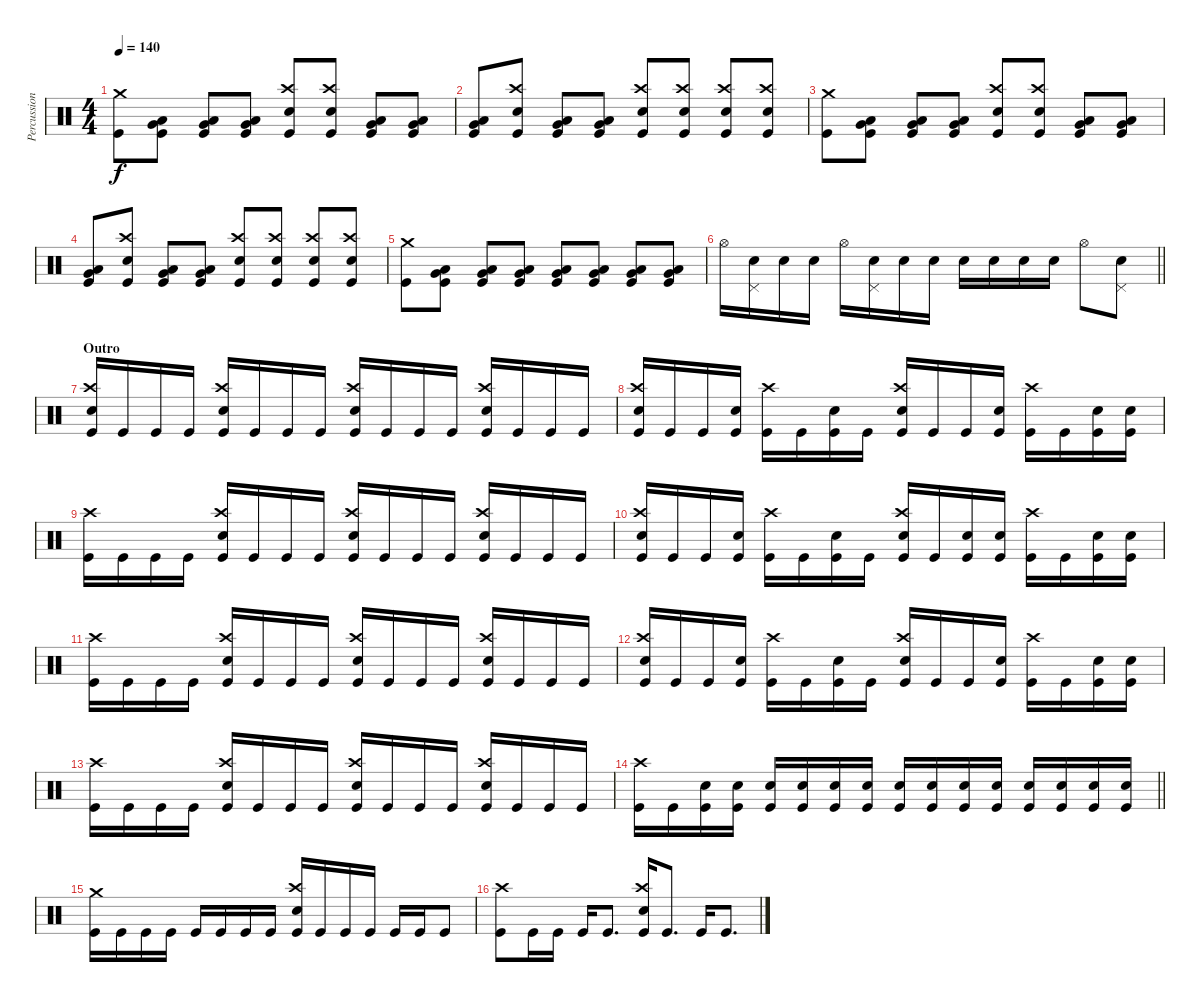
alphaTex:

\track ("Percussion" "Percussion") {instrument percussion}
\staff {score}
\articulation defaults
\ts (4 4)
\tempo 140
\clef neutral
\ks c
("Crash medium (hit)" "Kick (hit)").8{dy f} ("Very Low Tom (hit)" "Low Floor Tom (hit)" "Kick (hit)").8 ("Very Low Tom (hit)" "Low Floor Tom (hit)" "Kick (hit)").8 ("Very Low Tom (hit)" "Low Floor Tom (hit)" "Kick (hit)").8 ("Crash high (hit)" "Electric Snare (hit)" "Kick (hit)").8 ("Crash high (hit)" "Electric Snare (hit)" "Kick (hit)").8 ("Very Low Tom (hit)" "Low Floor Tom (hit)" "Kick (hit)").8 ("Very Low Tom (hit)" "Low Floor Tom (hit)" "Kick (hit)").8 |
("Very Low Tom (hit)" "Low Floor Tom (hit)" "Kick (hit)").8 ("Crash high (hit)" "Electric Snare (hit)" "Kick (hit)").8 ("Very Low Tom (hit)" "Low Floor Tom (hit)" "Kick (hit)").8 ("Very Low Tom (hit)" "Low Floor Tom (hit)" "Kick (hit)").8 ("Crash high (hit)" "Electric Snare (hit)" "Kick (hit)").8 ("Crash high (hit)" "Electric Snare (hit)" "Kick (hit)").8 ("Crash high (hit)" "Electric Snare (hit)" "Kick (hit)").8 ("Crash high (hit)" "Electric Snare (hit)" "Kick (hit)").8 |
("Crash medium (hit)" "Kick (hit)").8 ("Very Low Tom (hit)" "Low Floor Tom (hit)" "Kick (hit)").8 ("Very Low Tom (hit)" "Low Floor Tom (hit)" "Kick (hit)").8 ("Very Low Tom (hit)" "Low Floor Tom (hit)" "Kick (hit)").8 ("Crash high (hit)" "Electric Snare (hit)" "Kick (hit)").8 ("Crash high (hit)" "Electric Snare (hit)" "Kick (hit)").8 ("Very Low Tom (hit)" "Low Floor Tom (hit)" "Kick (hit)").8 ("Very Low Tom (hit)" "Low Floor Tom (hit)" "Kick (hit)").8 |
("Very Low Tom (hit)" "Low Floor Tom (hit)" "Kick (hit)").8 ("Crash high (hit)" "Electric Snare (hit)" "Kick (hit)").8 ("Very Low Tom (hit)" "Low Floor Tom (hit)" "Kick (hit)").8 ("Very Low Tom (hit)" "Low Floor Tom (hit)" "Kick (hit)").8 ("Crash high (hit)" "Electric Snare (hit)" "Kick (hit)").8 ("Crash high (hit)" "Electric Snare (hit)" "Kick (hit)").8 ("Crash high (hit)" "Electric Snare (hit)" "Kick (hit)").8 ("Crash high (hit)" "Electric Snare (hit)" "Kick (hit)").8 |
("Crash medium (hit)" "Kick (hit)").8 ("Very Low Tom (hit)" "Low Floor Tom (hit)" "Kick (hit)").8 ("Very Low Tom (hit)" "Low Floor Tom (hit)" "Kick (hit)").8 ("Very Low Tom (hit)" "Low Floor Tom (hit)" "Kick (hit)").8 ("Very Low Tom (hit)" "Low Floor Tom (hit)" "Kick (hit)").8 ("Very Low Tom (hit)" "Low Floor Tom (hit)" "Kick (hit)").8 ("Very Low Tom (hit)" "Low Floor Tom (hit)" "Kick (hit)").8 ("Very Low Tom (hit)" "Low Floor Tom (hit)" "Kick (hit)").8 |
\barLineRight lightlight "Hi-Hat (open)".16
("Pedal Hi-Hat (hit)" "Electric Snare (hit)").16 "Electric Snare (hit)".16 "Electric Snare (hit)".16 "Hi-Hat (open)".16 ("Pedal Hi-Hat (hit)" "Electric Snare (hit)").16 "Electric Snare (hit)".16 "Electric Snare (hit)".16 "Electric Snare (hit)".16 "Electric Snare (hit)".16 "Electric Snare (hit)".16 "Electric Snare (hit)".16 "Hi-Hat (open)".8 ("Pedal Hi-Hat (hit)" "Electric Snare (hit)").8 |
\section ("" "Outro")
("Crash high (hit)" "Electric Snare (hit)" "Kick (hit)").16 "Kick (hit)".16 "Kick (hit)".16 "Kick (hit)".16 ("Crash high (hit)" "Electric Snare (hit)" "Kick (hit)").16 "Kick (hit)".16 "Kick (hit)".16 "Kick (hit)".16 ("Crash high (hit)" "Electric Snare (hit)" "Kick (hit)").16 "Kick (hit)".16 "Kick (hit)".16 "Kick (hit)".16 ("Crash high (hit)" "Electric Snare (hit)" "Kick (hit)").16 "Kick (hit)".16 "Kick (hit)".16 "Kick (hit)".16 |
("Crash high (hit)" "Electric Snare (hit)" "Kick (hit)").16 "Kick (hit)".16 "Kick (hit)".16 ("Electric Snare (hit)" "Kick (hit)").16 ("Crash high (hit)" "Kick (hit)").16 "Kick (hit)".16 ("Electric Snare (hit)" "Kick (hit)").16 "Kick (hit)".16 ("Crash high (hit)" "Electric Snare (hit)" "Kick (hit)").16 "Kick (hit)".16 "Kick (hit)".16 ("Electric Snare (hit)" "Kick (hit)").16 ("Crash high (hit)" "Kick (hit)").16 "Kick (hit)".16 ("Electric Snare (hit)" "Kick (hit)").16 ("Electric Snare (hit)" "Kick (hit)").16 |
("Crash high (hit)" "Kick (hit)").16 "Kick (hit)".16 "Kick (hit)".16 "Kick (hit)".16 ("Crash high (hit)" "Electric Snare (hit)" "Kick (hit)").16 "Kick (hit)".16 "Kick (hit)".16 "Kick (hit)".16 ("Crash high (hit)" "Electric Snare (hit)" "Kick (hit)").16 "Kick (hit)".16 "Kick (hit)".16 "Kick (hit)".16 ("Crash high (hit)" "Electric Snare (hit)" "Kick (hit)").16 "Kick (hit)".16 "Kick (hit)".16 "Kick (hit)".16 |
("Crash high (hit)" "Electric Snare (hit)" "Kick (hit)").16 "Kick (hit)".16 "Kick (hit)".16 ("Electric Snare (hit)" "Kick (hit)").16 ("Crash high (hit)" "Kick (hit)").16 "Kick (hit)".16 ("Electric Snare (hit)" "Kick (hit)").16 "Kick (hit)".16 ("Crash high (hit)" "Electric Snare (hit)" "Kick (hit)").16 "Kick (hit)".16 ("Electric Snare (hit)" "Kick (hit)").16 ("Electric Snare (hit)" "Kick (hit)").16 ("Crash high (hit)" "Kick (hit)").16 "Kick (hit)".16 ("Electric Snare (hit)" "Kick (hit)").16 ("Electric Snare (hit)" "Kick (hit)").16 |
("Crash high (hit)" "Kick (hit)").16 "Kick (hit)".16 "Kick (hit)".16 "Kick (hit)".16 ("Crash high (hit)" "Electric Snare (hit)" "Kick (hit)").16 "Kick (hit)".16 "Kick (hit)".16 "Kick (hit)".16 ("Crash high (hit)" "Electric Snare (hit)" "Kick (hit)").16 "Kick (hit)".16 "Kick (hit)".16 "Kick (hit)".16 ("Crash high (hit)" "Electric Snare (hit)" "Kick (hit)").16 "Kick (hit)".16 "Kick (hit)".16 "Kick (hit)".16 |
("Crash high (hit)" "Electric Snare (hit)" "Kick (hit)").16 "Kick (hit)".16 "Kick (hit)".16 ("Electric Snare (hit)" "Kick (hit)").16 ("Crash high (hit)" "Kick (hit)").16 "Kick (hit)".16 ("Electric Snare (hit)" "Kick (hit)").16 "Kick (hit)".16 ("Crash high (hit)" "Electric Snare (hit)" "Kick (hit)").16 "Kick (hit)".16 "Kick (hit)".16 ("Electric Snare (hit)" "Kick (hit)").16 ("Crash high (hit)" "Kick (hit)").16 "Kick (hit)".16 ("Electric Snare (hit)" "Kick (hit)").16 ("Electric Snare (hit)" "Kick (hit)").16 |
("Crash high (hit)" "Kick (hit)").16 "Kick (hit)".16 "Kick (hit)".16 "Kick (hit)".16 ("Crash high (hit)" "Electric Snare (hit)" "Kick (hit)").16 "Kick (hit)".16 "Kick (hit)".16 "Kick (hit)".16 ("Crash high (hit)" "Electric Snare (hit)" "Kick (hit)").16 "Kick (hit)".16 "Kick (hit)".16 "Kick (hit)".16 ("Crash high (hit)" "Electric Snare (hit)" "Kick (hit)").16 "Kick (hit)".16 "Kick (hit)".16 "Kick (hit)".16 |
\barLineRight lightlight
("Crash high (hit)" "Kick (hit)").16 "Kick (hit)".16 ("Electric Snare (hit)" "Kick (hit)").16 ("Electric Snare (hit)" "Kick (hit)").16 ("Electric Snare (hit)" "Kick (hit)").16 ("Electric Snare (hit)" "Kick (hit)").16 ("Electric Snare (hit)" "Kick (hit)").16 ("Electric Snare (hit)" "Kick (hit)").16 ("Electric Snare (hit)" "Kick (hit)").16 ("Electric Snare (hit)" "Kick (hit)").16 ("Electric Snare (hit)" "Kick (hit)").16 ("Electric Snare (hit)" "Kick (hit)").16 ("Electric Snare (hit)" "Kick (hit)").16 ("Electric Snare (hit)" "Kick (hit)").16 ("Electric Snare (hit)" "Kick (hit)").16 ("Electric Snare (hit)" "Kick (hit)").16 |
("Crash medium (hit)" "Kick (hit)").16 "Kick (hit)".16 "Kick (hit)".16 "Kick (hit)".16 "Kick (hit)".16 "Kick (hit)".16 "Kick (hit)".16 "Kick (hit)".16 ("Crash high (hit)" "Electric Snare (hit)" "Kick (hit)").16 "Kick (hit)".16 "Kick (hit)".16 "Kick (hit)".16 "Kick (hit)".16 "Kick (hit)".16 "Kick (hit)".8 |
("Crash high (hit)" "Kick (hit)").8 "Kick (hit)".16 "Kick (hit)".16 "Kick (hit)".16 "Kick (hit)".8{d} ("Crash high (hit)" "Electric Snare (hit)" "Kick (hit)").16 "Kick (hit)".8{d} "Kick (hit)".16 "Kick (hit)".8{d}
